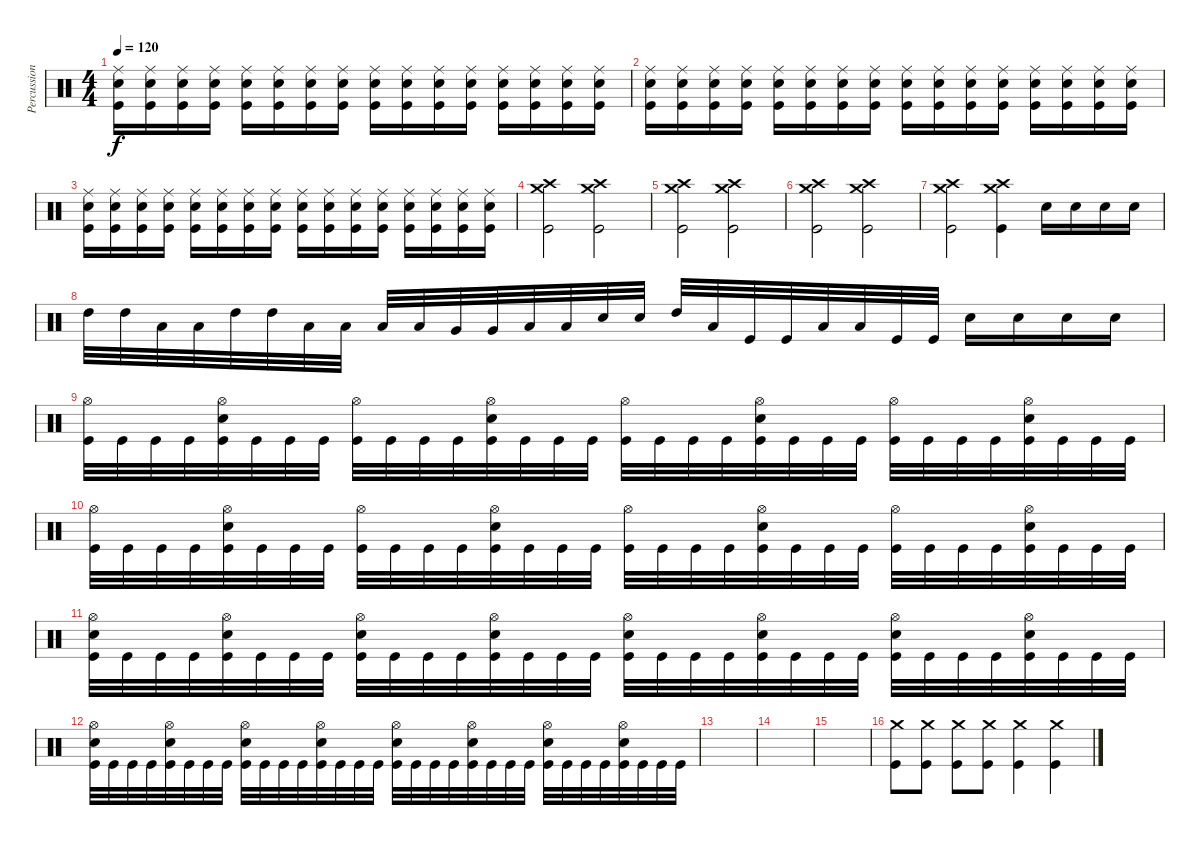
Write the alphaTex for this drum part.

\track ("Percussion" "Percussion") {instrument percussion}
\staff {score}
\articulation defaults
\ts (4 4)
\tempo 120
\clef neutral
\ks c
("Ride (middle)" "Snare (hit) 2" "Kick (hit)").16{dy f} ("Ride (middle)" "Snare (hit) 2" "Kick (hit)").16 ("Ride (middle)" "Snare (hit) 2" "Kick (hit)").16 ("Ride (middle)" "Snare (hit) 2" "Kick (hit)").16 ("Ride (middle)" "Snare (hit) 2" "Kick (hit)").16 ("Ride (middle)" "Snare (hit) 2" "Kick (hit)").16 ("Ride (middle)" "Snare (hit) 2" "Kick (hit)").16 ("Ride (middle)" "Snare (hit) 2" "Kick (hit)").16 ("Ride (middle)" "Snare (hit) 2" "Kick (hit)").16 ("Ride (middle)" "Snare (hit) 2" "Kick (hit)").16 ("Ride (middle)" "Snare (hit) 2" "Kick (hit)").16 ("Ride (middle)" "Snare (hit) 2" "Kick (hit)").16 ("Ride (middle)" "Snare (hit) 2" "Kick (hit)").16 ("Ride (middle)" "Snare (hit) 2" "Kick (hit)").16 ("Ride (middle)" "Snare (hit) 2" "Kick (hit)").16 ("Ride (middle)" "Snare (hit) 2" "Kick (hit)").16 |
("Ride (middle)" "Snare (hit) 2" "Kick (hit)").16 ("Ride (middle)" "Snare (hit) 2" "Kick (hit)").16 ("Ride (middle)" "Snare (hit) 2" "Kick (hit)").16 ("Ride (middle)" "Snare (hit) 2" "Kick (hit)").16 ("Ride (middle)" "Snare (hit) 2" "Kick (hit)").16 ("Ride (middle)" "Snare (hit) 2" "Kick (hit)").16 ("Ride (middle)" "Snare (hit) 2" "Kick (hit)").16 ("Ride (middle)" "Snare (hit) 2" "Kick (hit)").16 ("Ride (middle)" "Snare (hit) 2" "Kick (hit)").16 ("Ride (middle)" "Snare (hit) 2" "Kick (hit)").16 ("Ride (middle)" "Snare (hit) 2" "Kick (hit)").16 ("Ride (middle)" "Snare (hit) 2" "Kick (hit)").16 ("Ride (middle)" "Snare (hit) 2" "Kick (hit)").16 ("Ride (middle)" "Snare (hit) 2" "Kick (hit)").16 ("Ride (middle)" "Snare (hit) 2" "Kick (hit)").16 ("Ride (middle)" "Snare (hit) 2" "Kick (hit)").16 |
("Ride (middle)" "Snare (hit) 2" "Kick (hit)").16 ("Ride (middle)" "Snare (hit) 2" "Kick (hit)").16 ("Ride (middle)" "Snare (hit) 2" "Kick (hit)").16 ("Ride (middle)" "Snare (hit) 2" "Kick (hit)").16 ("Ride (middle)" "Snare (hit) 2" "Kick (hit)").16 ("Ride (middle)" "Snare (hit) 2" "Kick (hit)").16 ("Ride (middle)" "Snare (hit) 2" "Kick (hit)").16 ("Ride (middle)" "Snare (hit) 2" "Kick (hit)").16 ("Ride (middle)" "Snare (hit) 2" "Kick (hit)").16 ("Ride (middle)" "Snare (hit) 2" "Kick (hit)").16 ("Ride (middle)" "Snare (hit) 2" "Kick (hit)").16 ("Ride (middle)" "Snare (hit) 2" "Kick (hit)").16 ("Ride (middle)" "Snare (hit) 2" "Kick (hit)").16 ("Ride (middle)" "Snare (hit) 2" "Kick (hit)").16 ("Ride (middle)" "Snare (hit) 2" "Kick (hit)").16 ("Ride (middle)" "Snare (hit) 2" "Kick (hit)").16 |
("Crash medium (hit)" "Crash high (hit)" "Kick (hit)").2 ("Crash medium (hit)" "Crash high (hit)" "Kick (hit)").2 |
("Crash medium (hit)" "Crash high (hit)" "Kick (hit)").2 ("Crash medium (hit)" "Crash high (hit)" "Kick (hit)").2 |
("Crash medium (hit)" "Crash high (hit)" "Kick (hit)").2 ("Crash medium (hit)" "Crash high (hit)" "Kick (hit)").2 |
("Crash medium (hit)" "Crash high (hit)" "Kick (hit)").2 ("Crash medium (hit)" "Crash high (hit)" "Kick (hit)").4 "Snare (hit) 2".16 "Snare (hit) 2".16 "Snare (hit) 2".16 "Snare (hit) 2".16 |
"High Tom (hit)".32 "High Tom (hit)".32 "Low Tom (hit)".32 "Low Tom (hit)".32 "High Tom (hit)".32 "High Tom (hit)".32 "Low Tom (hit)".32 "Low Tom (hit)".32 "Low Floor Tom (hit)".32 "Low Floor Tom (hit)".32 "Very Low Tom (hit)".32 "Very Low Tom (hit)".32 "Low Tom (hit)".32 "Low Tom (hit)".32 "Snare (hit) 2".32 "Snare (hit) 2".32 "High Tom (hit)".32 "Low Floor Tom (hit)".32 "Kick (hit)".32 "Kick (hit)".32 "Low Tom (hit)".32 "Low Floor Tom (hit)".32 "Kick (hit)".32 "Kick (hit)".32 "Snare (hit) 2".16 "Snare (hit) 2".16 "Snare (hit) 2".16 "Snare (hit) 2".16 |
("Hi-Hat (open)" "Kick (hit)").32 "Kick (hit)".32 "Kick (hit)".32 "Kick (hit)".32 ("Hi-Hat (open)" "Snare (hit) 2" "Kick (hit)").32 "Kick (hit)".32 "Kick (hit)".32 "Kick (hit)".32 ("Hi-Hat (open)" "Kick (hit)").32 "Kick (hit)".32 "Kick (hit)".32 "Kick (hit)".32 ("Hi-Hat (open)" "Snare (hit) 2" "Kick (hit)").32 "Kick (hit)".32 "Kick (hit)".32 "Kick (hit)".32 ("Hi-Hat (open)" "Kick (hit)").32 "Kick (hit)".32 "Kick (hit)".32 "Kick (hit)".32 ("Hi-Hat (open)" "Snare (hit) 2" "Kick (hit)").32 "Kick (hit)".32 "Kick (hit)".32 "Kick (hit)".32 ("Hi-Hat (open)" "Kick (hit)").32 "Kick (hit)".32 "Kick (hit)".32 "Kick (hit)".32 ("Hi-Hat (open)" "Snare (hit) 2" "Kick (hit)").32 "Kick (hit)".32 "Kick (hit)".32 "Kick (hit)".32 |
("Hi-Hat (open)" "Kick (hit)").32 "Kick (hit)".32 "Kick (hit)".32 "Kick (hit)".32 ("Hi-Hat (open)" "Snare (hit) 2" "Kick (hit)").32 "Kick (hit)".32 "Kick (hit)".32 "Kick (hit)".32 ("Hi-Hat (open)" "Kick (hit)").32 "Kick (hit)".32 "Kick (hit)".32 "Kick (hit)".32 ("Hi-Hat (open)" "Snare (hit) 2" "Kick (hit)").32 "Kick (hit)".32 "Kick (hit)".32 "Kick (hit)".32 ("Hi-Hat (open)" "Kick (hit)").32 "Kick (hit)".32 "Kick (hit)".32 "Kick (hit)".32 ("Hi-Hat (open)" "Snare (hit) 2" "Kick (hit)").32 "Kick (hit)".32 "Kick (hit)".32 "Kick (hit)".32 ("Hi-Hat (open)" "Kick (hit)").32 "Kick (hit)".32 "Kick (hit)".32 "Kick (hit)".32 ("Hi-Hat (open)" "Snare (hit) 2" "Kick (hit)").32 "Kick (hit)".32 "Kick (hit)".32 "Kick (hit)".32 |
("Hi-Hat (open)" "Snare (hit) 2" "Kick (hit)").32 "Kick (hit)".32 "Kick (hit)".32 "Kick (hit)".32 ("Hi-Hat (open)" "Snare (hit) 2" "Kick (hit)").32 "Kick (hit)".32 "Kick (hit)".32 "Kick (hit)".32 ("Hi-Hat (open)" "Snare (hit) 2" "Kick (hit)").32 "Kick (hit)".32 "Kick (hit)".32 "Kick (hit)".32 ("Hi-Hat (open)" "Snare (hit) 2" "Kick (hit)").32 "Kick (hit)".32 "Kick (hit)".32 "Kick (hit)".32 ("Hi-Hat (open)" "Snare (hit) 2" "Kick (hit)").32 "Kick (hit)".32 "Kick (hit)".32 "Kick (hit)".32 ("Hi-Hat (open)" "Snare (hit) 2" "Kick (hit)").32 "Kick (hit)".32 "Kick (hit)".32 "Kick (hit)".32 ("Hi-Hat (open)" "Snare (hit) 2" "Kick (hit)").32 "Kick (hit)".32 "Kick (hit)".32 "Kick (hit)".32 ("Hi-Hat (open)" "Snare (hit) 2" "Kick (hit)").32 "Kick (hit)".32 "Kick (hit)".32 "Kick (hit)".32 |
("Hi-Hat (open)" "Snare (hit) 2" "Kick (hit)").32 "Kick (hit)".32 "Kick (hit)".32 "Kick (hit)".32 ("Hi-Hat (open)" "Snare (hit) 2" "Kick (hit)").32 "Kick (hit)".32 "Kick (hit)".32 "Kick (hit)".32 ("Hi-Hat (open)" "Snare (hit) 2" "Kick (hit)").32 "Kick (hit)".32 "Kick (hit)".32 "Kick (hit)".32 ("Hi-Hat (open)" "Snare (hit) 2" "Kick (hit)").32 "Kick (hit)".32 "Kick (hit)".32 "Kick (hit)".32 ("Hi-Hat (open)" "Snare (hit) 2" "Kick (hit)").32 "Kick (hit)".32 "Kick (hit)".32 "Kick (hit)".32 ("Hi-Hat (open)" "Snare (hit) 2" "Kick (hit)").32 "Kick (hit)".32 "Kick (hit)".32 "Kick (hit)".32 ("Hi-Hat (open)" "Snare (hit) 2" "Kick (hit)").32 "Kick (hit)".32 "Kick (hit)".32 "Kick (hit)".32 ("Hi-Hat (open)" "Snare (hit) 2" "Kick (hit)").32 "Kick (hit)".32 "Kick (hit)".32 "Kick (hit)".32 |
|
|
|
("Crash medium (hit)" "Kick (hit)").8 ("Crash medium (hit)" "Kick (hit)").8 ("Crash medium (hit)" "Kick (hit)").8 ("Crash medium (hit)" "Kick (hit)").8 ("Crash medium (hit)" "Kick (hit)").4 ("Crash medium (hit)" "Kick (hit)").4
